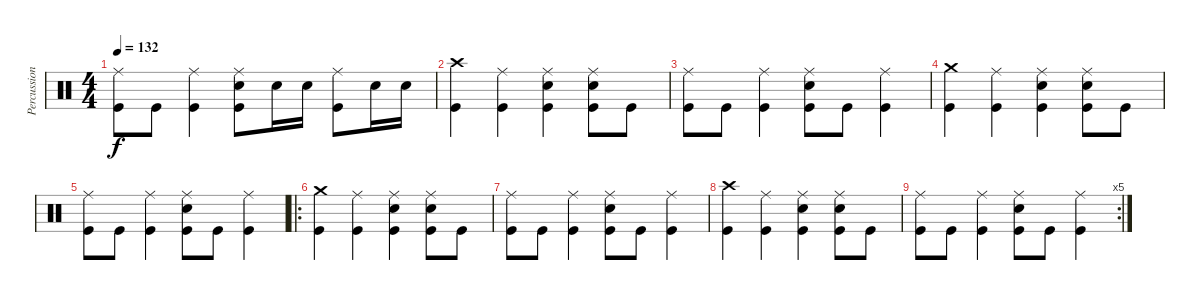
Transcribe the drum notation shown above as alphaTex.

\track ("Percussion" "Percussion") {instrument percussion}
\staff {score}
\articulation defaults
\ts (4 4)
\tempo 132
\clef neutral
\ks c
("Ride (middle)" "Kick (hit)").8{dy f} "Kick (hit)".8 ("Ride (middle)" "Kick (hit)").4 ("Ride (middle)" "Electric Snare (hit)" "Kick (hit)").8 "Electric Snare (hit)".16 "Electric Snare (hit)".16 ("Ride (middle)" "Kick (hit)").8 "Electric Snare (hit)".16 "Electric Snare (hit)".16 |
("Crash high (hit)" "Kick (hit)").4 ("Ride (middle)" "Kick (hit)").4 ("Ride (middle)" "Electric Snare (hit)" "Kick (hit)").4 ("Ride (middle)" "Electric Snare (hit)" "Kick (hit)").8 "Kick (hit)".8 |
("Ride (middle)" "Kick (hit)").8 "Kick (hit)".8 ("Ride (middle)" "Kick (hit)").4 ("Ride (middle)" "Electric Snare (hit)" "Kick (hit)").8 "Kick (hit)".8 ("Ride (middle)" "Kick (hit)").4 |
("Crash medium (hit)" "Kick (hit)").4 ("Ride (middle)" "Kick (hit)").4 ("Ride (middle)" "Electric Snare (hit)" "Kick (hit)").4 ("Ride (middle)" "Electric Snare (hit)" "Kick (hit)").8 "Kick (hit)".8 |
("Ride (middle)" "Kick (hit)").8 "Kick (hit)".8 ("Ride (middle)" "Kick (hit)").4 ("Ride (middle)" "Electric Snare (hit)" "Kick (hit)").8 "Kick (hit)".8 ("Ride (middle)" "Kick (hit)").4 |
\ro
("Crash medium (hit)" "Kick (hit)").4 ("Ride (middle)" "Kick (hit)").4 ("Ride (middle)" "Electric Snare (hit)" "Kick (hit)").4 ("Ride (middle)" "Electric Snare (hit)" "Kick (hit)").8 "Kick (hit)".8 |
("Ride (middle)" "Kick (hit)").8 "Kick (hit)".8 ("Ride (middle)" "Kick (hit)").4 ("Ride (middle)" "Electric Snare (hit)" "Kick (hit)").8 "Kick (hit)".8 ("Ride (middle)" "Kick (hit)").4 |
("Crash high (hit)" "Kick (hit)").4 ("Ride (middle)" "Kick (hit)").4 ("Ride (middle)" "Electric Snare (hit)" "Kick (hit)").4 ("Ride (middle)" "Electric Snare (hit)" "Kick (hit)").8 "Kick (hit)".8 |
\rc 5
("Ride (middle)" "Kick (hit)").8 "Kick (hit)".8 ("Ride (middle)" "Kick (hit)").4 ("Ride (middle)" "Electric Snare (hit)" "Kick (hit)").8 "Kick (hit)".8 ("Ride (middle)" "Kick (hit)").4
